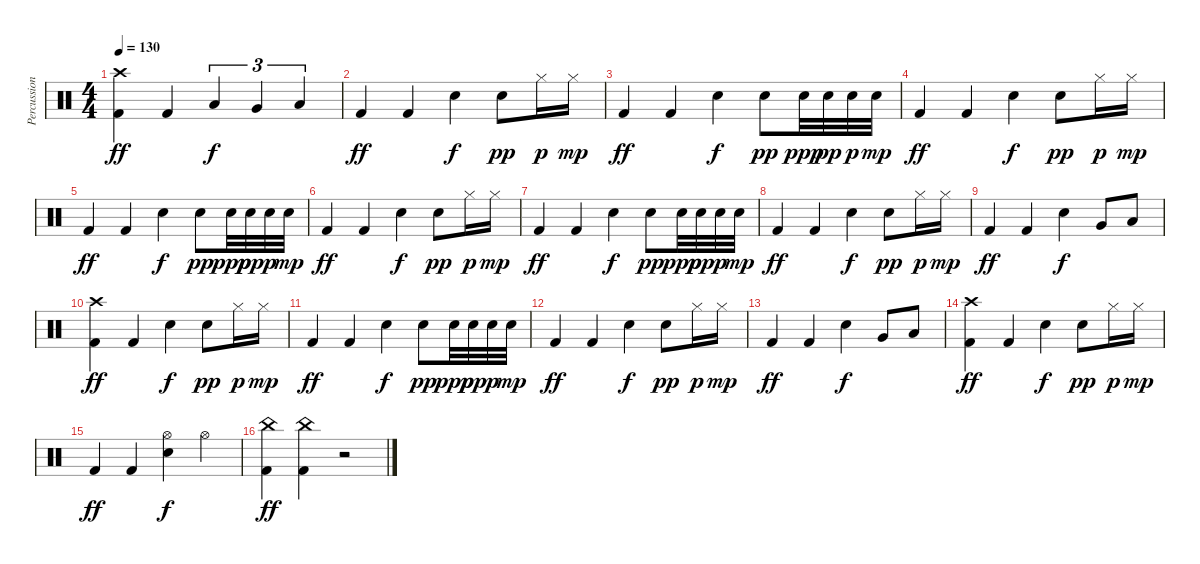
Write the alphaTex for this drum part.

\track ("Percussions" "Percussion") {instrument percussion}
\staff {score}
\articulation defaults
\ts (4 4)
\tempo 130
\clef neutral
\ks c
("Crash high (hit)" "Kick (hit) 2").4{dy ff} "Kick (hit) 2".4 "Low Tom (hit)".4{tu (3 2) dy f} "Very Low Tom (hit)".4{tu (3 2)} "Low Floor Tom (hit)".4{tu (3 2)} |
"Kick (hit) 2".4{dy ff} "Kick (hit) 2".4 "Snare (hit) 2".4{dy f} "Snare (hit) 2".8{dy pp} "Hi-Hat (closed)".16{dy p} "Hi-Hat (closed)".16{dy mp} |
"Kick (hit) 2".4{dy ff} "Kick (hit) 2".4 "Snare (hit) 2".4{dy f} "Snare (hit) 2".8{dy pp} "Snare (hit) 2".32{dy ppp} "Snare (hit) 2".32{dy pp} "Snare (hit) 2".32{dy p} "Snare (hit) 2".32{dy mp} |
"Kick (hit) 2".4{dy ff} "Kick (hit) 2".4 "Snare (hit) 2".4{dy f} "Snare (hit) 2".8{dy pp} "Hi-Hat (closed)".16{dy p} "Hi-Hat (closed)".16{dy mp} |
"Kick (hit) 2".4{dy ff} "Kick (hit) 2".4 "Snare (hit) 2".4{dy f} "Snare (hit) 2".8{dy pp} "Snare (hit) 2".32{dy ppp} "Snare (hit) 2".32{dy pp} "Snare (hit) 2".32{dy p} "Snare (hit) 2".32{dy mp} |
"Kick (hit) 2".4{dy ff} "Kick (hit) 2".4 "Snare (hit) 2".4{dy f} "Snare (hit) 2".8{dy pp} "Hi-Hat (closed)".16{dy p} "Hi-Hat (closed)".16{dy mp} |
"Kick (hit) 2".4{dy ff} "Kick (hit) 2".4 "Snare (hit) 2".4{dy f} "Snare (hit) 2".8{dy pp} "Snare (hit) 2".32{dy ppp} "Snare (hit) 2".32{dy pp} "Snare (hit) 2".32{dy p} "Snare (hit) 2".32{dy mp} |
"Kick (hit) 2".4{dy ff} "Kick (hit) 2".4 "Snare (hit) 2".4{dy f} "Snare (hit) 2".8{dy pp} "Hi-Hat (closed)".16{dy p} "Hi-Hat (closed)".16{dy mp} |
"Kick (hit) 2".4{dy ff} "Kick (hit) 2".4 "Snare (hit) 2".4{dy f} "Very Low Tom (hit)".8 "Low Floor Tom (hit)".8 |
("Crash high (hit)" "Kick (hit) 2").4{dy ff} "Kick (hit) 2".4 "Snare (hit) 2".4{dy f} "Snare (hit) 2".8{dy pp} "Hi-Hat (closed)".16{dy p} "Hi-Hat (closed)".16{dy mp} |
"Kick (hit) 2".4{dy ff} "Kick (hit) 2".4 "Snare (hit) 2".4{dy f} "Snare (hit) 2".8{dy pp} "Snare (hit) 2".32{dy ppp} "Snare (hit) 2".32{dy pp} "Snare (hit) 2".32{dy p} "Snare (hit) 2".32{dy mp} |
"Kick (hit) 2".4{dy ff} "Kick (hit) 2".4 "Snare (hit) 2".4{dy f} "Snare (hit) 2".8{dy pp} "Hi-Hat (closed)".16{dy p} "Hi-Hat (closed)".16{dy mp} |
"Kick (hit) 2".4{dy ff} "Kick (hit) 2".4 "Snare (hit) 2".4{dy f} "Very Low Tom (hit)".8 "Low Floor Tom (hit)".8 |
("Crash high (hit)" "Kick (hit) 2").4{dy ff} "Kick (hit) 2".4 "Snare (hit) 2".4{dy f} "Snare (hit) 2".8{dy pp} "Hi-Hat (closed)".16{dy p} "Hi-Hat (closed)".16{dy mp} |
"Kick (hit) 2".4{dy ff} "Kick (hit) 2".4 ("Snare (hit) 2" "Hi-Hat (open)").4{dy f} "Hi-Hat (open)".4 |
("China (hit)" "Kick (hit) 2").4{dy ff} ("China (hit)" "Kick (hit) 2").4 r.2
